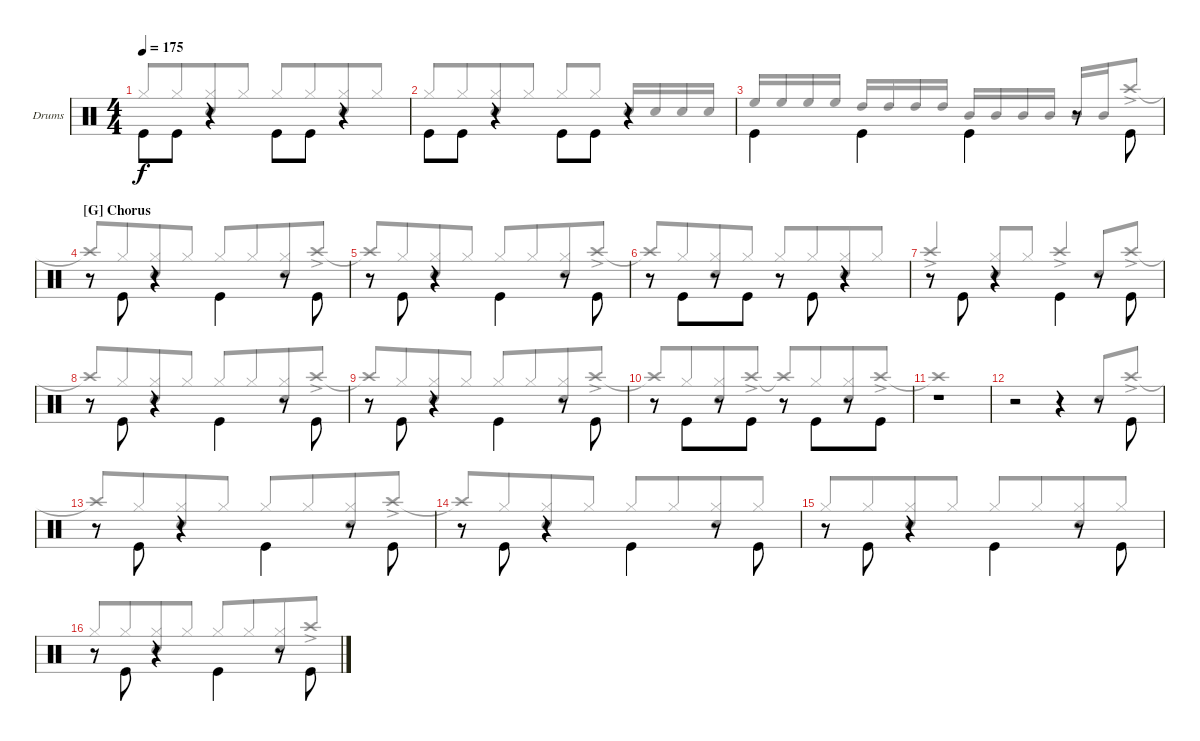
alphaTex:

\defaultSystemsLayout 4
\bracketExtendMode groupsimilarinstruments
\firstSystemTrackNameOrientation horizontal
\otherSystemsTrackNameOrientation horizontal
\track ("Drum" "Drums") {instrument percussion}
\staff {score}
\articulation defaults
\voice
\ts (4 4)
\tempo 175
\clef neutral
\scale
1.02648
\ks c "Kick (hit)".8{dy f beam invert} "Kick (hit)".8
r.4 "Kick (hit)".8{beam invert} "Kick (hit)".8 r.4 |
\scale
0.973518 "Kick (hit)".8{beam invert} "Kick (hit)".8 r.4 "Kick (hit)".8{beam invert} "Kick (hit)".8 r.4 |
\scale
1.02648 "Kick (hit)".4{beam invert} "Kick (hit)".4{beam invert} "Kick (hit)".4{beam invert} r.8 "Kick (hit)".8{beam invert} |
\section ("G" "Chorus")
\scale
0.973518 r.8 "Kick (hit)".8{beam invert} r.4 "Kick (hit)".4{beam invert} r.8 "Kick (hit)".8{beam invert} |
\scale
1.02648 r.8 "Kick (hit)".8{beam invert} r.4 "Kick (hit)".4{beam invert} r.8 "Kick (hit)".8{beam invert} |
\scale
0.973518 r.8 "Kick (hit)".8{beam invert beam merge} r.8{beam merge} "Kick (hit)".8 r.8 "Kick (hit)".8{beam invert beam merge} r.4 |
\scale
1.05675 r.8 "Kick (hit)".8{beam invert} r.4 "Kick (hit)".4{beam invert} r.8 "Kick (hit)".8{beam invert} |
\scale
0.943253 r.8 "Kick (hit)".8{beam invert} r.4 "Kick (hit)".4{beam invert} r.8 "Kick (hit)".8{beam invert} |
\scale
1.02648 r.8 "Kick (hit)".8{beam invert} r.4 "Kick (hit)".4{beam invert} r.8 "Kick (hit)".8{beam invert} |
\scale
0.973518 r.8 "Kick (hit)".8{beam invert beam merge} r.8{beam merge} "Kick (hit)".8 r.8 "Kick (hit)".8{beam invert beam merge} r.8{beam merge} "Kick (hit)".8 |
\scale
1.05675 r.1 |
\scale
0.943253 r.2 r.4 r.8 "Kick (hit)".8{beam invert} |
\scale
1.02648 r.8 "Kick (hit)".8{beam invert} r.4 "Kick (hit)".4{beam invert} r.8 "Kick (hit)".8{beam invert} |
\scale
0.973518 r.8 "Kick (hit)".8{beam invert} r.4 "Kick (hit)".4{beam invert} r.8 "Kick (hit)".8{beam invert} |
\scale
1.02648 r.8 "Kick (hit)".8{beam invert} r.4 "Kick (hit)".4{beam invert} r.8 "Kick (hit)".8{beam invert} |
\scale
0.973518 r.8 "Kick (hit)".8{beam invert} r.4 "Kick (hit)".4{beam invert} r.8 "Kick (hit)".8{beam invert}
\voice
\clef neutral
\ottava regular
\simile none
\scale
1.02648
\ks c "Hi-Hat (closed)".8{dy f beam invert beam merge} "Hi-Hat (closed)".8{beam merge}
("Hi-Hat (closed)" "Snare (hit) 2").8{beam merge} "Hi-Hat (closed)".8 "Hi-Hat (closed)".8{beam invert beam merge} "Hi-Hat (closed)".8{beam merge} ("Hi-Hat (closed)" "Snare (hit) 2").8{beam merge} "Hi-Hat (closed)".8 |
\scale
0.973518 "Hi-Hat (closed)".8{beam invert beam merge} "Hi-Hat (closed)".8{beam merge} ("Hi-Hat (closed)" "Snare (hit) 2").8{beam merge} "Hi-Hat (closed)".8 "Hi-Hat (closed)".8{beam invert beam merge} "Hi-Hat (closed)".8{beam split} "Snare (hit) 2".16{beam invert beam merge} "Snare (hit) 2".16{beam merge} "Snare (hit) 2".16{beam merge} "Snare (hit) 2".16{beam split} |
\scale
1.02648 "High Floor Tom (hit)".16{beam invert} "High Floor Tom (hit)".16 "High Floor Tom (hit)".16 "High Floor Tom (hit)".16 "High Tom (hit)".16{beam invert} "High Tom (hit)".16 "High Tom (hit)".16 "High Tom (hit)".16 "Mid Tom (hit)".16{beam invert} "Mid Tom (hit)".16 "Mid Tom (hit)".16 "Mid Tom (hit)".16 "Mid Tom (hit)".16{beam invert} "Mid Tom (hit)".16 "Crash high (hit)"{ac}.8 |
\scale
0.973518 "Crash high (hit)"{t}.8{beam invert beam merge} "Hi-Hat (closed)".8{beam merge} ("Hi-Hat (closed)" "Snare (hit) 2").8{beam merge} "Hi-Hat (closed)".8 "Hi-Hat (closed)".8{beam invert beam merge} "Hi-Hat (closed)".8{beam merge} ("Hi-Hat (closed)" "Snare (hit) 2").8{beam merge} "Crash high (hit)"{ac}.8 |
\scale
1.02648 "Crash high (hit)"{t}.8{beam invert beam merge} "Hi-Hat (closed)".8{beam merge} ("Hi-Hat (closed)" "Snare (hit) 2").8{beam merge} "Hi-Hat (closed)".8 "Hi-Hat (closed)".8{beam invert beam merge} "Hi-Hat (closed)".8{beam merge} ("Hi-Hat (closed)" "Snare (hit) 2").8{beam merge} "Crash high (hit)"{ac}.8 |
\scale
0.973518 "Crash high (hit)"{t}.8{beam invert beam merge} "Hi-Hat (closed)".8{beam merge} ("Hi-Hat (closed)" "Snare (hit) 2").8{beam merge} "Hi-Hat (closed)".8 "Hi-Hat (closed)".8{beam invert beam merge} "Hi-Hat (closed)".8{beam merge} ("Hi-Hat (closed)" "Snare (hit) 2").8{beam merge} "Hi-Hat (closed)".8 |
\scale
1.05675 "Crash high (hit)"{ac}.4{beam invert} ("Hi-Hat (closed)" "Snare (hit) 2").8{beam invert beam merge} "Hi-Hat (closed)".8 "Crash high (hit)"{ac}.4{beam invert} "Snare (hit) 2".8{beam invert} "Crash high (hit)"{ac}.8 |
\scale
0.943253 "Crash high (hit)"{t}.8{beam invert beam merge} "Hi-Hat (closed)".8{beam merge} ("Hi-Hat (closed)" "Snare (hit) 2").8{beam merge} "Hi-Hat (closed)".8 "Hi-Hat (closed)".8{beam invert beam merge} "Hi-Hat (closed)".8{beam merge} ("Hi-Hat (closed)" "Snare (hit) 2").8{beam merge} "Crash high (hit)"{ac}.8 |
\scale
1.02648 "Crash high (hit)"{t}.8{beam invert beam merge} "Hi-Hat (closed)".8{beam merge} ("Hi-Hat (closed)" "Snare (hit) 2").8{beam merge} "Hi-Hat (closed)".8 "Hi-Hat (closed)".8{beam invert beam merge} "Hi-Hat (closed)".8{beam merge} ("Hi-Hat (closed)" "Snare (hit) 2").8{beam merge} "Crash high (hit)"{ac}.8 |
\scale
0.973518 "Crash high (hit)"{t}.8{beam invert beam merge} "Hi-Hat (closed)".8{beam merge} ("Hi-Hat (closed)" "Snare (hit) 2").8{beam merge} "Crash high (hit)"{ac}.8 "Crash high (hit)"{t}.8{beam invert beam merge} "Hi-Hat (closed)".8{beam merge} ("Hi-Hat (closed)" "Snare (hit) 2").8{beam merge} "Crash high (hit)"{ac}.8 |
\scale
1.05675 "Crash high (hit)"{t}.1 |
\scale
0.943253 r.2 r.4 "Snare (hit) 2".8{beam invert} "Crash high (hit)"{ac}.8 |
\scale
1.02648 "Crash high (hit)"{t}.8{beam invert beam merge} "Hi-Hat (closed)".8{beam merge} ("Hi-Hat (closed)" "Snare (hit) 2").8{beam merge} "Hi-Hat (closed)".8 "Hi-Hat (closed)".8{beam invert beam merge} "Hi-Hat (closed)".8{beam merge} ("Hi-Hat (closed)" "Snare (hit) 2").8{beam merge} "Crash high (hit)"{ac}.8 |
\scale
0.973518 "Crash high (hit)"{t}.8{beam invert beam merge} "Hi-Hat (closed)".8{beam merge} ("Hi-Hat (closed)" "Snare (hit) 2").8{beam merge} "Hi-Hat (closed)".8 "Hi-Hat (closed)".8{beam invert beam merge} "Hi-Hat (closed)".8{beam merge} ("Hi-Hat (closed)" "Snare (hit) 2").8{beam merge} "Hi-Hat (closed)".8 |
\scale
1.02648 "Hi-Hat (closed)".8{beam invert beam merge} "Hi-Hat (closed)".8{beam merge} ("Hi-Hat (closed)" "Snare (hit) 2").8{beam merge} "Hi-Hat (closed)".8 "Hi-Hat (closed)".8{beam invert beam merge} "Hi-Hat (closed)".8{beam merge} ("Hi-Hat (closed)" "Snare (hit) 2").8{beam merge} "Hi-Hat (closed)".8 |
\scale
0.973518 "Hi-Hat (closed)".8{beam invert beam merge} "Hi-Hat (closed)".8{beam merge} ("Hi-Hat (closed)" "Snare (hit) 2").8{beam merge} "Hi-Hat (closed)".8 "Hi-Hat (closed)".8{beam invert beam merge} "Hi-Hat (closed)".8{beam merge} ("Hi-Hat (closed)" "Snare (hit) 2").8{beam merge} "Crash high (hit)"{ac}.8
